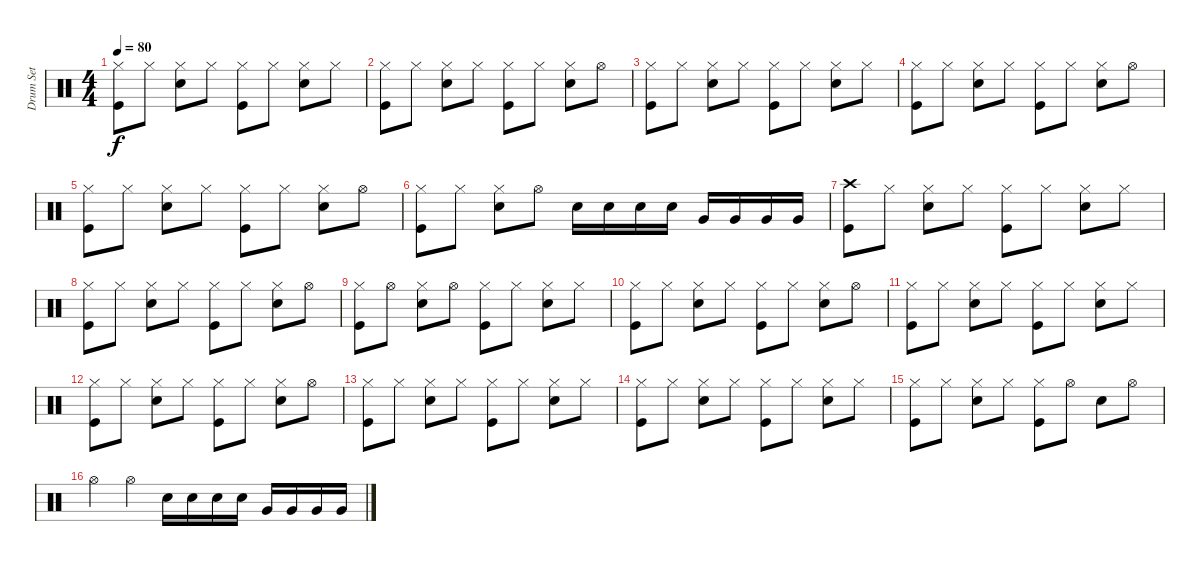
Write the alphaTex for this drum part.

\track ("Drum Set" "Drum Set") {instrument percussion}
\staff {score}
\articulation defaults
\ts (4 4)
\tempo 80
\clef neutral
\ks c
("Hi-Hat (closed)" "Kick (hit)").8{dy f} "Hi-Hat (closed)".8 ("Hi-Hat (closed)" "Electric Snare (hit)").8 "Hi-Hat (closed)".8 ("Hi-Hat (closed)" "Kick (hit)").8 "Hi-Hat (closed)".8 ("Hi-Hat (closed)" "Electric Snare (hit)").8 "Hi-Hat (closed)".8 |
("Hi-Hat (closed)" "Kick (hit)").8 "Hi-Hat (closed)".8 ("Hi-Hat (closed)" "Electric Snare (hit)").8 "Hi-Hat (closed)".8 ("Hi-Hat (closed)" "Kick (hit)").8 "Hi-Hat (closed)".8 ("Hi-Hat (closed)" "Electric Snare (hit)").8 "Hi-Hat (open)".8 |
("Hi-Hat (closed)" "Kick (hit)").8 "Hi-Hat (closed)".8 ("Hi-Hat (closed)" "Electric Snare (hit)").8 "Hi-Hat (closed)".8 ("Hi-Hat (closed)" "Kick (hit)").8 "Hi-Hat (closed)".8 ("Hi-Hat (closed)" "Electric Snare (hit)").8 "Hi-Hat (closed)".8 |
("Hi-Hat (closed)" "Kick (hit)").8 "Hi-Hat (closed)".8 ("Hi-Hat (closed)" "Electric Snare (hit)").8 "Hi-Hat (closed)".8 ("Hi-Hat (closed)" "Kick (hit)").8 "Hi-Hat (closed)".8 ("Hi-Hat (closed)" "Electric Snare (hit)").8 "Hi-Hat (open)".8 |
("Hi-Hat (closed)" "Kick (hit)").8 "Hi-Hat (closed)".8 ("Hi-Hat (closed)" "Electric Snare (hit)").8 "Hi-Hat (closed)".8 ("Hi-Hat (closed)" "Kick (hit)").8 "Hi-Hat (closed)".8 ("Hi-Hat (closed)" "Electric Snare (hit)").8 "Hi-Hat (open)".8 |
("Hi-Hat (closed)" "Kick (hit)").8 "Hi-Hat (closed)".8 ("Hi-Hat (closed)" "Electric Snare (hit)").8 "Hi-Hat (open)".8 "Electric Snare (hit)".16 "Electric Snare (hit)".16 "Electric Snare (hit)".16 "Electric Snare (hit)".16 "Very Low Tom (hit)".16 "Very Low Tom (hit)".16 "Very Low Tom (hit)".16 "Very Low Tom (hit)".16 |
("Crash high (hit)" "Kick (hit)").8 "Hi-Hat (closed)".8 ("Hi-Hat (closed)" "Electric Snare (hit)").8 "Hi-Hat (closed)".8 ("Hi-Hat (closed)" "Kick (hit)").8 "Hi-Hat (closed)".8 ("Hi-Hat (closed)" "Electric Snare (hit)").8 "Hi-Hat (closed)".8 |
("Hi-Hat (closed)" "Kick (hit)").8 "Hi-Hat (closed)".8 ("Hi-Hat (closed)" "Electric Snare (hit)").8 "Hi-Hat (closed)".8 ("Hi-Hat (closed)" "Kick (hit)").8 "Hi-Hat (closed)".8 ("Hi-Hat (closed)" "Electric Snare (hit)").8 "Hi-Hat (open)".8 |
("Hi-Hat (closed)" "Kick (hit)").8 "Hi-Hat (open)".8 ("Hi-Hat (closed)" "Electric Snare (hit)").8 "Hi-Hat (open)".8 ("Hi-Hat (closed)" "Kick (hit)").8 "Hi-Hat (closed)".8 ("Hi-Hat (closed)" "Electric Snare (hit)").8 "Hi-Hat (closed)".8 |
("Hi-Hat (closed)" "Kick (hit)").8 "Hi-Hat (closed)".8 ("Hi-Hat (closed)" "Electric Snare (hit)").8 "Hi-Hat (closed)".8 ("Hi-Hat (closed)" "Kick (hit)").8 "Hi-Hat (closed)".8 ("Hi-Hat (closed)" "Electric Snare (hit)").8 "Hi-Hat (open)".8 |
("Hi-Hat (closed)" "Kick (hit)").8 "Hi-Hat (closed)".8 ("Hi-Hat (closed)" "Electric Snare (hit)").8 "Hi-Hat (closed)".8 ("Hi-Hat (closed)" "Kick (hit)").8 "Hi-Hat (closed)".8 ("Hi-Hat (closed)" "Electric Snare (hit)").8 "Hi-Hat (closed)".8 |
("Hi-Hat (closed)" "Kick (hit)").8 "Hi-Hat (closed)".8 ("Hi-Hat (closed)" "Electric Snare (hit)").8 "Hi-Hat (closed)".8 ("Hi-Hat (closed)" "Kick (hit)").8 "Hi-Hat (closed)".8 ("Hi-Hat (closed)" "Electric Snare (hit)").8 "Hi-Hat (open)".8 |
("Hi-Hat (closed)" "Kick (hit)").8 "Hi-Hat (closed)".8 ("Hi-Hat (closed)" "Electric Snare (hit)").8 "Hi-Hat (closed)".8 ("Hi-Hat (closed)" "Kick (hit)").8 "Hi-Hat (closed)".8 ("Hi-Hat (closed)" "Electric Snare (hit)").8 "Hi-Hat (closed)".8 |
("Hi-Hat (closed)" "Kick (hit)").8 "Hi-Hat (closed)".8 ("Hi-Hat (closed)" "Electric Snare (hit)").8 "Hi-Hat (closed)".8 ("Hi-Hat (closed)" "Kick (hit)").8 "Hi-Hat (closed)".8 ("Hi-Hat (closed)" "Electric Snare (hit)").8 "Hi-Hat (closed)".8 |
("Hi-Hat (closed)" "Kick (hit)").8 "Hi-Hat (closed)".8 ("Hi-Hat (closed)" "Electric Snare (hit)").8 "Hi-Hat (closed)".8 ("Hi-Hat (closed)" "Kick (hit)").8 "Hi-Hat (open)".8 "Electric Snare (hit)".8 "Hi-Hat (open)".8 |
"Hi-Hat (open)".4 "Hi-Hat (open)".4 "Electric Snare (hit)".16 "Electric Snare (hit)".16 "Electric Snare (hit)".16 "Electric Snare (hit)".16 "Very Low Tom (hit)".16 "Very Low Tom (hit)".16 "Very Low Tom (hit)".16 "Very Low Tom (hit)".16
